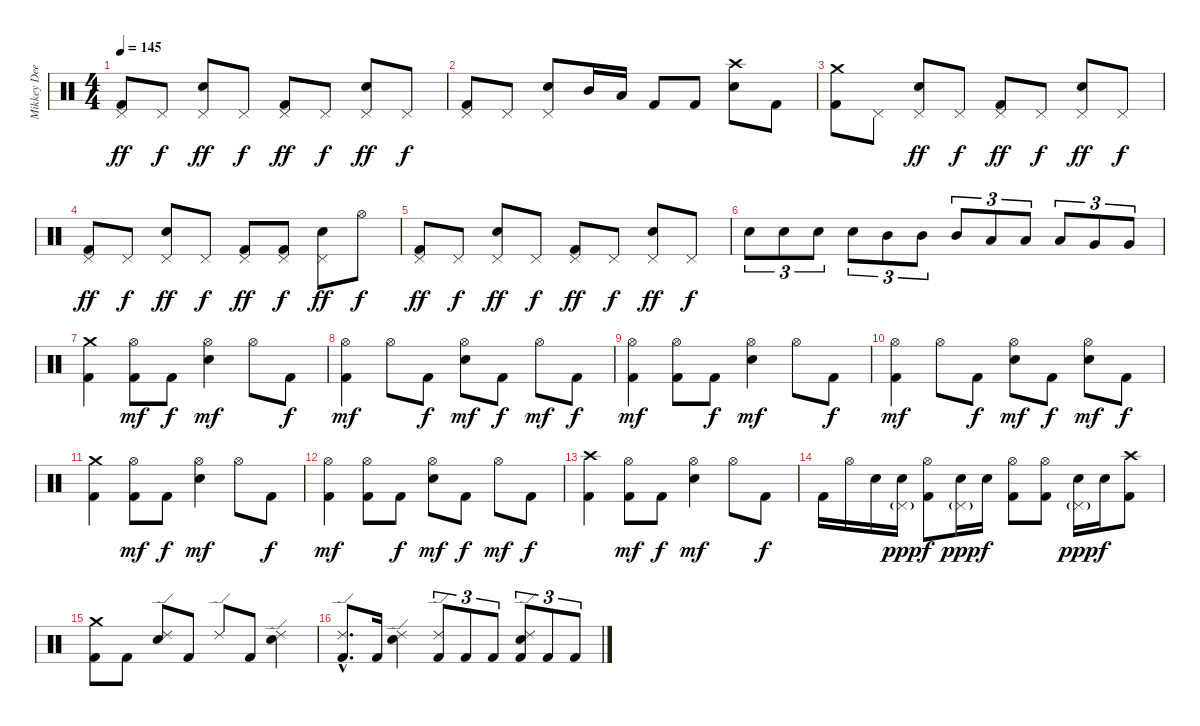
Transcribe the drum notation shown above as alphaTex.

\track ("Mikkey Dee" "Mikkey Dee") {instrument percussion}
\staff {score}
\articulation defaults
\ts (4 4)
\tempo 145
\clef neutral
\ks c
("Kick (hit) 2" "Pedal Hi-Hat (hit)").8{dy ff} "Pedal Hi-Hat (hit)".8{dy f} ("Pedal Hi-Hat (hit)" "Snare (hit) 2").8{dy ff} "Pedal Hi-Hat (hit)".8{dy f} ("Kick (hit) 2" "Pedal Hi-Hat (hit)").8{dy ff} "Pedal Hi-Hat (hit)".8{dy f} ("Pedal Hi-Hat (hit)" "Snare (hit) 2").8{dy ff} "Pedal Hi-Hat (hit)".8{dy f} |
("Kick (hit) 2" "Pedal Hi-Hat (hit)").8 "Pedal Hi-Hat (hit)".8 ("Pedal Hi-Hat (hit)" "Snare (hit) 2").8 "Mid Tom (hit)".16 "Low Tom (hit)".16 "Kick (hit) 2".8 "Kick (hit) 2".8 ("Crash high (hit)" "Snare (hit) 2").8 "Kick (hit) 2".8 |
("Kick (hit) 2" "Crash medium (hit)").8 "Pedal Hi-Hat (hit)".8 ("Pedal Hi-Hat (hit)" "Snare (hit) 2").8{dy ff} "Pedal Hi-Hat (hit)".8{dy f} ("Kick (hit) 2" "Pedal Hi-Hat (hit)").8{dy ff} "Pedal Hi-Hat (hit)".8{dy f} ("Pedal Hi-Hat (hit)" "Snare (hit) 2").8{dy ff} "Pedal Hi-Hat (hit)".8{dy f} |
("Kick (hit) 2" "Pedal Hi-Hat (hit)").8{dy ff} "Pedal Hi-Hat (hit)".8{dy f} ("Pedal Hi-Hat (hit)" "Snare (hit) 2").8{dy ff} "Pedal Hi-Hat (hit)".8{dy f} ("Kick (hit) 2" "Pedal Hi-Hat (hit)").8{dy ff} ("Kick (hit) 2" "Pedal Hi-Hat (hit)").8{dy f} ("Pedal Hi-Hat (hit)" "Snare (hit) 2").8{dy ff} "Hi-Hat (open)".8{dy f} |
("Kick (hit) 2" "Pedal Hi-Hat (hit)").8{dy ff} "Pedal Hi-Hat (hit)".8{dy f} ("Pedal Hi-Hat (hit)" "Snare (hit) 2").8{dy ff} "Pedal Hi-Hat (hit)".8{dy f} ("Kick (hit) 2" "Pedal Hi-Hat (hit)").8{dy ff} "Pedal Hi-Hat (hit)".8{dy f} ("Pedal Hi-Hat (hit)" "Snare (hit) 2").8{dy ff} "Pedal Hi-Hat (hit)".8{dy f} |
"Snare (hit) 2".8{tu (3 2)} "Snare (hit) 2".8{tu (3 2)} "Snare (hit) 2".8{tu (3 2)} "Snare (hit) 2".8{tu (3 2)} "Mid Tom (hit)".8{tu (3 2)} "Mid Tom (hit)".8{tu (3 2)} "Mid Tom (hit)".8{tu (3 2)} "Low Tom (hit)".8{tu (3 2)} "Low Tom (hit)".8{tu (3 2)} "Low Tom (hit)".8{tu (3 2)} "Very Low Tom (hit)".8{tu (3 2)} "Very Low Tom (hit)".8{tu (3 2)} |
("Kick (hit) 2" "Crash medium (hit)").4 ("Kick (hit) 2" "Hi-Hat (open)").8{dy mf} "Kick (hit) 2".8{dy f} ("Hi-Hat (open)" "Snare (hit) 2").4{dy mf} "Hi-Hat (open)".8 "Kick (hit) 2".8{dy f} |
("Kick (hit) 2" "Hi-Hat (open)").4{dy mf} "Hi-Hat (open)".8 "Kick (hit) 2".8{dy f} ("Hi-Hat (open)" "Snare (hit) 2").8{dy mf} "Kick (hit) 2".8{dy f} "Hi-Hat (open)".8{dy mf} "Kick (hit) 2".8{dy f} |
("Kick (hit) 2" "Hi-Hat (open)").4{dy mf} ("Kick (hit) 2" "Hi-Hat (open)").8 "Kick (hit) 2".8{dy f} ("Hi-Hat (open)" "Snare (hit) 2").4{dy mf} "Hi-Hat (open)".8 "Kick (hit) 2".8{dy f} |
("Kick (hit) 2" "Hi-Hat (open)").4{dy mf} "Hi-Hat (open)".8 "Kick (hit) 2".8{dy f} ("Hi-Hat (open)" "Snare (hit) 2").8{dy mf} "Kick (hit) 2".8{dy f} ("Hi-Hat (open)" "Snare (hit) 2").8{dy mf} "Kick (hit) 2".8{dy f} |
("Kick (hit) 2" "Crash medium (hit)").4 ("Kick (hit) 2" "Hi-Hat (open)").8{dy mf} "Kick (hit) 2".8{dy f} ("Hi-Hat (open)" "Snare (hit) 2").4{dy mf} "Hi-Hat (open)".8 "Kick (hit) 2".8{dy f} |
("Kick (hit) 2" "Hi-Hat (open)").4{dy mf} ("Kick (hit) 2" "Hi-Hat (open)").8 "Kick (hit) 2".8{dy f} ("Hi-Hat (open)" "Snare (hit) 2").8{dy mf} "Kick (hit) 2".8{dy f} "Hi-Hat (open)".8{dy mf} "Kick (hit) 2".8{dy f} |
("Kick (hit) 2" "Crash high (hit)").4 ("Kick (hit) 2" "Hi-Hat (open)").8{dy mf} "Kick (hit) 2".8{dy f} ("Hi-Hat (open)" "Snare (hit) 2").4{dy mf} "Hi-Hat (open)".8 "Kick (hit) 2".8{dy f} |
"Kick (hit) 2".16 "Hi-Hat (open)".16 "Snare (hit) 2".16 ("Pedal Hi-Hat (hit)"{g} "Snare (hit) 2").16{dy ppp} ("Kick (hit) 2" "Hi-Hat (open)").8{dy f} ("Pedal Hi-Hat (hit)"{g} "Snare (hit) 2").16{dy ppp} "Snare (hit) 2".16{dy f} ("Kick (hit) 2" "Hi-Hat (open)").8 ("Kick (hit) 2" "Hi-Hat (open)").8 ("Pedal Hi-Hat (hit)"{g} "Snare (hit) 2").16{dy ppp} "Snare (hit) 2".16{dy f} ("Kick (hit) 2" "Crash high (hit)").8 |
("Kick (hit) 2" "Crash medium (hit)").8 "Kick (hit) 2".8 ("Ride (edge) 2" "Snare (hit) 2").8 "Kick (hit) 2".8 "Ride (edge) 2".8 "Kick (hit) 2".8 ("Ride (edge) 2" "Snare (hit) 2").4 |
("Kick (hit) 2"{hac} "Ride (edge) 2"{hac}).8{d} "Kick (hit) 2".16 ("Ride (edge) 2" "Snare (hit) 2").4 ("Kick (hit) 2" "Ride (edge) 2").8{tu (3 2)} "Kick (hit) 2".8{tu (3 2)} "Kick (hit) 2".8{tu (3 2)} ("Kick (hit) 2" "Ride (edge) 2" "Snare (hit) 2").8{tu (3 2)} "Kick (hit) 2".8{tu (3 2)} "Kick (hit) 2".8{tu (3 2)}
